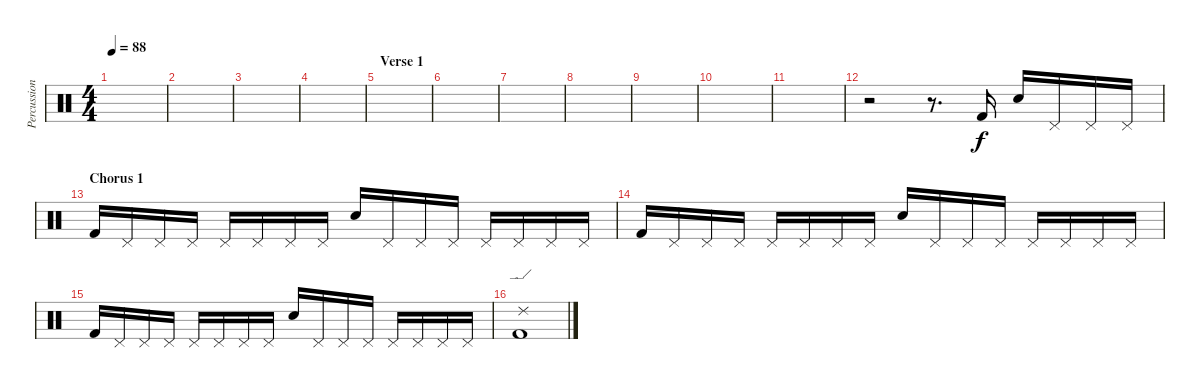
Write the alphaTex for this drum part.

\track ("Percussion" "Percussion") {instrument percussion}
\staff {score}
\articulation defaults
\ts (4 4)
\tempo 88
\clef neutral
\ks c
|
|
|
|
\section ("" "Verse 1")
|
|
|
|
|
|
|
r.2 r.8{d} "Kick (hit) 2".16 "Electric Snare (hit)".16 "Pedal Hi-Hat (hit)".16 "Pedal Hi-Hat (hit)".16 "Pedal Hi-Hat (hit)".16 |
\section ("" "Chorus 1")
"Kick (hit) 2".16 "Pedal Hi-Hat (hit)".16 "Pedal Hi-Hat (hit)".16 "Pedal Hi-Hat (hit)".16 "Pedal Hi-Hat (hit)".16 "Pedal Hi-Hat (hit)".16 "Pedal Hi-Hat (hit)".16 "Pedal Hi-Hat (hit)".16 "Electric Snare (hit)".16 "Pedal Hi-Hat (hit)".16 "Pedal Hi-Hat (hit)".16 "Pedal Hi-Hat (hit)".16 "Pedal Hi-Hat (hit)".16 "Pedal Hi-Hat (hit)".16 "Pedal Hi-Hat (hit)".16 "Pedal Hi-Hat (hit)".16 |
"Kick (hit) 2".16 "Pedal Hi-Hat (hit)".16 "Pedal Hi-Hat (hit)".16 "Pedal Hi-Hat (hit)".16 "Pedal Hi-Hat (hit)".16 "Pedal Hi-Hat (hit)".16 "Pedal Hi-Hat (hit)".16 "Pedal Hi-Hat (hit)".16 "Electric Snare (hit)".16 "Pedal Hi-Hat (hit)".16 "Pedal Hi-Hat (hit)".16 "Pedal Hi-Hat (hit)".16 "Pedal Hi-Hat (hit)".16 "Pedal Hi-Hat (hit)".16 "Pedal Hi-Hat (hit)".16 "Pedal Hi-Hat (hit)".16 |
"Kick (hit) 2".16 "Pedal Hi-Hat (hit)".16 "Pedal Hi-Hat (hit)".16 "Pedal Hi-Hat (hit)".16 "Pedal Hi-Hat (hit)".16 "Pedal Hi-Hat (hit)".16 "Pedal Hi-Hat (hit)".16 "Pedal Hi-Hat (hit)".16 "Electric Snare (hit)".16 "Pedal Hi-Hat (hit)".16 "Pedal Hi-Hat (hit)".16 "Pedal Hi-Hat (hit)".16 "Pedal Hi-Hat (hit)".16 "Pedal Hi-Hat (hit)".16 "Pedal Hi-Hat (hit)".16 "Pedal Hi-Hat (hit)".16 |
("Ride (edge) 2" "Kick (hit) 2").1
